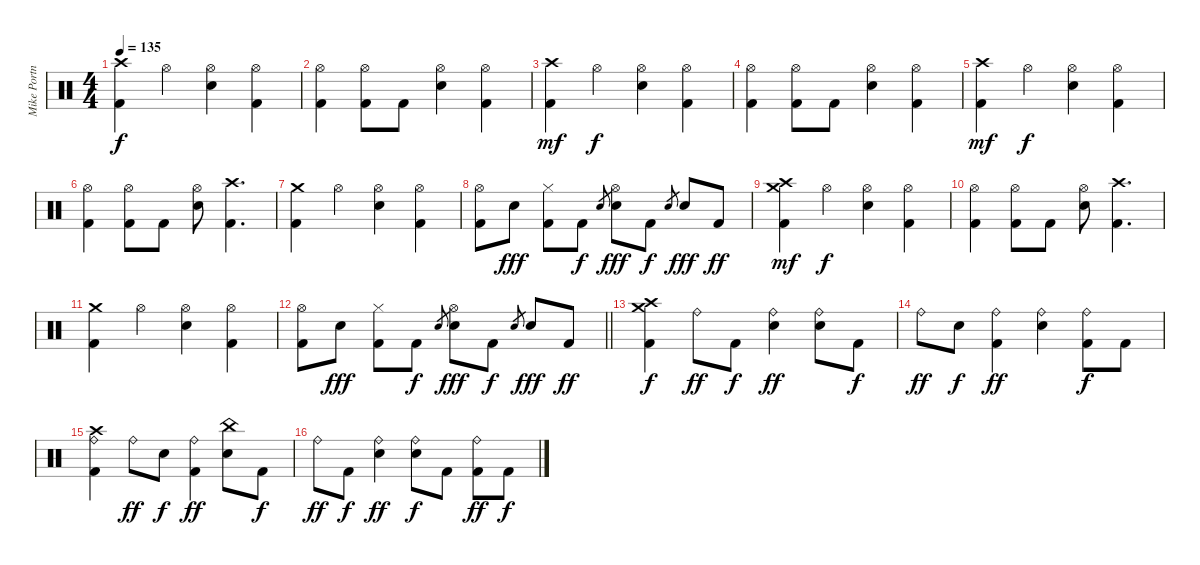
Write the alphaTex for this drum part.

\track ("Mike Portnoy" "Mike Portn") {instrument percussion}
\staff {score}
\articulation defaults
\ts (4 4)
\tempo 135
\clef neutral
\ks c
("Crash high (hit)" "Kick (hit) 2").4{dy f} "Hi-Hat (open)".4 ("Hi-Hat (open)" "Electric Snare (hit)").4 ("Hi-Hat (open)" "Kick (hit) 2").4 |
("Hi-Hat (open)" "Kick (hit) 2").4 ("Hi-Hat (open)" "Kick (hit) 2").8 "Kick (hit) 2".8 ("Hi-Hat (open)" "Electric Snare (hit)").4 ("Hi-Hat (open)" "Kick (hit) 2").4 |
("Crash high (hit)" "Kick (hit) 2").4{dy mf} "Hi-Hat (open)".4{dy f} ("Hi-Hat (open)" "Electric Snare (hit)").4 ("Hi-Hat (open)" "Kick (hit) 2").4 |
("Hi-Hat (open)" "Kick (hit) 2").4 ("Hi-Hat (open)" "Kick (hit) 2").8 "Kick (hit) 2".8 ("Hi-Hat (open)" "Electric Snare (hit)").4 ("Hi-Hat (open)" "Kick (hit) 2").4 |
("Crash high (hit)" "Kick (hit) 2").4{dy mf} "Hi-Hat (open)".4{dy f} ("Hi-Hat (open)" "Electric Snare (hit)").4 ("Hi-Hat (open)" "Kick (hit) 2").4 |
("Hi-Hat (open)" "Kick (hit) 2").4 ("Hi-Hat (open)" "Kick (hit) 2").8 "Kick (hit) 2".8 ("Hi-Hat (open)" "Electric Snare (hit)").8 ("Crash high (hit)" "Kick (hit) 2").4{d} |
("Crash medium (hit)" "Kick (hit) 2").4 "Hi-Hat (open)".4 ("Hi-Hat (open)" "Electric Snare (hit)").4 ("Hi-Hat (open)" "Kick (hit) 2").4 |
("Hi-Hat (open)" "Kick (hit) 2").8 "Electric Snare (hit)".8{dy fff} ("Hi-Hat (closed)" "Kick (hit) 2").8 "Kick (hit) 2".8{dy f} "Electric Snare (hit)".8{gr} ("Hi-Hat (open)" "Electric Snare (hit)").8{dy fff} "Kick (hit) 2".8{dy f} "Electric Snare (hit)".8{gr} "Electric Snare (hit)".8{dy fff} "Kick (hit) 2".8{dy ff} |
("Crash medium (hit)" "Crash high (hit)" "Kick (hit) 2").4{dy mf} "Hi-Hat (open)".4{dy f} ("Hi-Hat (open)" "Electric Snare (hit)").4 ("Hi-Hat (open)" "Kick (hit) 2").4 |
("Hi-Hat (open)" "Kick (hit) 2").4 ("Hi-Hat (open)" "Kick (hit) 2").8 "Kick (hit) 2".8 ("Hi-Hat (open)" "Electric Snare (hit)").8 ("Crash high (hit)" "Kick (hit) 2").4{d} |
("Crash medium (hit)" "Kick (hit) 2").4 "Hi-Hat (open)".4 ("Hi-Hat (open)" "Electric Snare (hit)").4 ("Hi-Hat (open)" "Kick (hit) 2").4 |
\barLineRight lightlight
("Hi-Hat (open)" "Kick (hit) 2").8 "Electric Snare (hit)".8{dy fff} ("Hi-Hat (closed)" "Kick (hit) 2").8 "Kick (hit) 2".8{dy f} "Electric Snare (hit)".8{gr} ("Hi-Hat (open)" "Electric Snare (hit)").8{dy fff} "Kick (hit) 2".8{dy f} "Electric Snare (hit)".8{gr} "Electric Snare (hit)".8{dy fff} "Kick (hit) 2".8{dy ff} |
("Crash high (hit)" "Crash medium (hit)" "Kick (hit) 2").4{dy f} "Ride (bell)".8{dy ff} "Kick (hit) 2".8{dy f} ("Ride (bell)" "Snare (hit) 2").4{dy ff} ("Ride (bell)" "Snare (hit) 2").8 "Kick (hit) 2".8{dy f} |
"Ride (bell)".8{dy ff} "Snare (hit) 2".8{dy f} ("Ride (bell)" "Kick (hit) 2").4{dy ff} ("Ride (bell)" "Snare (hit) 2").4 ("Ride (bell)" "Kick (hit) 2").8{dy f} "Kick (hit) 2".8 |
("Crash high (hit)" "Ride (bell)" "Kick (hit) 2").4 "Ride (bell)".8{dy ff} "Snare (hit) 2".8{dy f} ("Ride (bell)" "Kick (hit) 2").4{dy ff} ("China (hit)" "Snare (hit) 2").8 "Kick (hit) 2".8{dy f} |
"Ride (bell)".8{dy ff} "Kick (hit) 2".8{dy f} ("Ride (bell)" "Snare (hit) 2").4{dy ff} ("Ride (bell)" "Snare (hit) 2").8{dy f} "Kick (hit) 2".8 ("Ride (bell)" "Kick (hit) 2").8{dy ff} "Kick (hit) 2".8{dy f}
